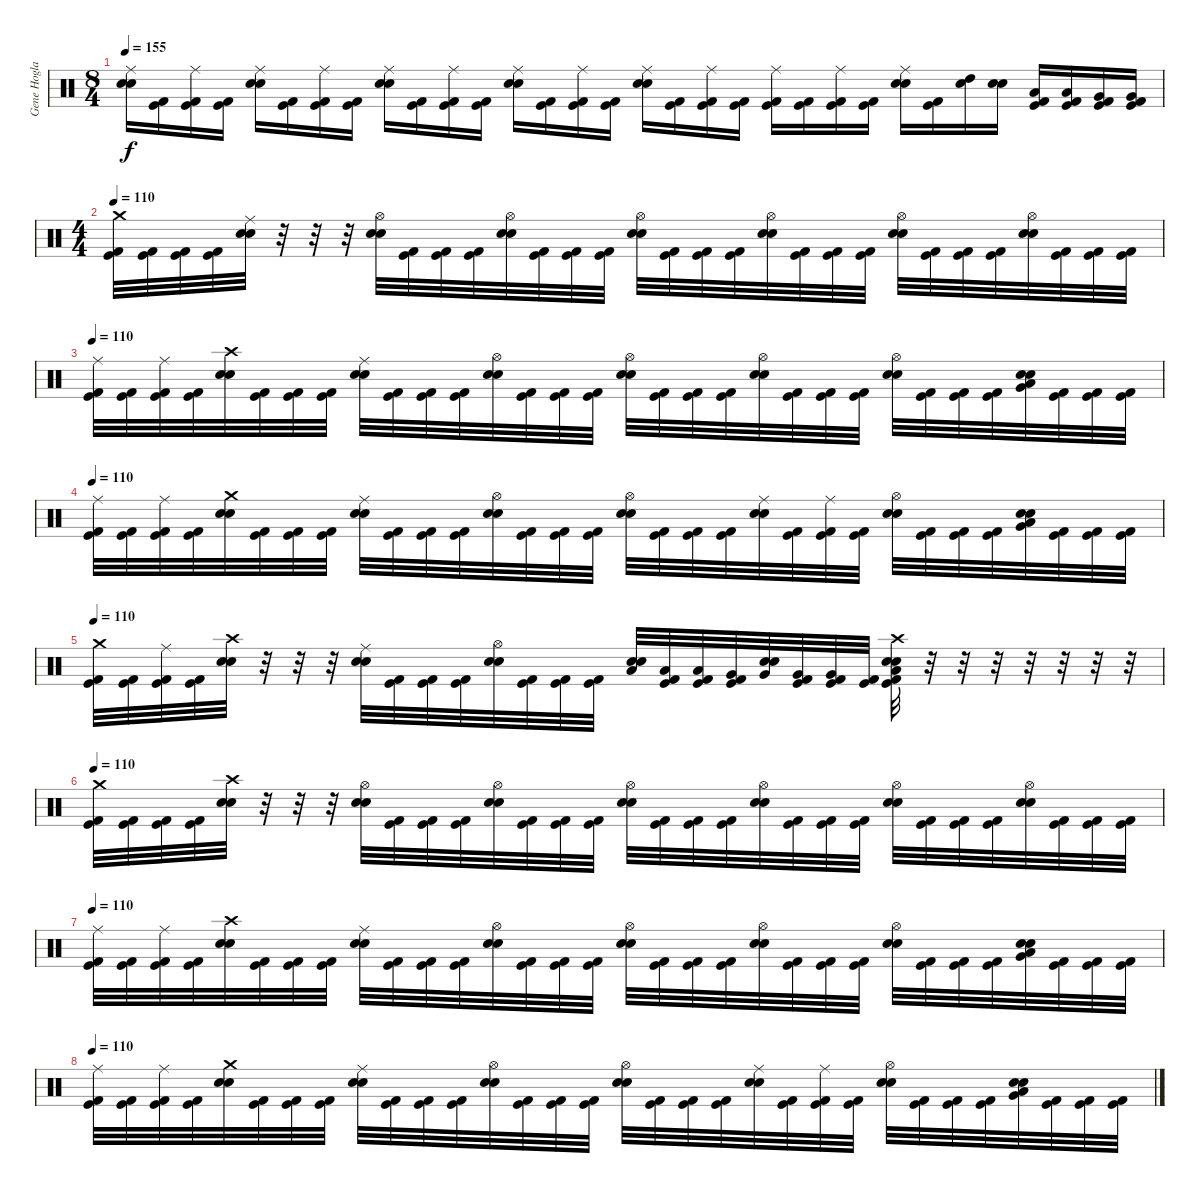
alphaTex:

\track ("Gene Hoglan" "Gene Hogla") {instrument percussion}
\staff {score}
\articulation defaults
\ts (8 4)
\tempo 155
\clef neutral
\ks c
("Ride (middle)" "Snare (hit) 2" "Electric Snare (hit)").16{dy f} ("Kick (hit) 2" "Kick (hit)").16 ("Ride (middle)" "Kick (hit) 2" "Kick (hit)").16 ("Kick (hit) 2" "Kick (hit)").16 ("Ride (middle)" "Snare (hit) 2" "Electric Snare (hit)").16 ("Kick (hit) 2" "Kick (hit)").16 ("Ride (middle)" "Kick (hit) 2" "Kick (hit)").16 ("Kick (hit) 2" "Kick (hit)").16 ("Ride (middle)" "Snare (hit) 2" "Electric Snare (hit)").16 ("Kick (hit) 2" "Kick (hit)").16 ("Ride (middle)" "Kick (hit) 2" "Kick (hit)").16 ("Kick (hit) 2" "Kick (hit)").16 ("Ride (middle)" "Snare (hit) 2" "Electric Snare (hit)").16 ("Kick (hit) 2" "Kick (hit)").16 ("Ride (middle)" "Kick (hit) 2" "Kick (hit)").16 ("Kick (hit) 2" "Kick (hit)").16 ("Ride (middle)" "Snare (hit) 2" "Electric Snare (hit)").16 ("Kick (hit)" "Kick (hit) 2").16 ("Ride (middle)" "Kick (hit) 2" "Kick (hit)").16 ("Kick (hit)" "Kick (hit) 2").16 ("Ride (middle)" "Kick (hit)" "Kick (hit) 2").16 ("Kick (hit) 2" "Kick (hit)").16 ("Ride (middle)" "Kick (hit)" "Kick (hit) 2").16 ("Kick (hit)" "Kick (hit) 2").16 ("Ride (middle)" "Snare (hit) 2" "Electric Snare (hit)").16 ("Kick (hit) 2" "Kick (hit)").16 ("High Tom (hit)" "Electric Snare (hit)").16 ("Snare (hit) 2" "Electric Snare (hit)").16 ("Low Tom (hit)" "Kick (hit)" "Kick (hit) 2").16 ("Low Tom (hit)" "Kick (hit) 2" "Kick (hit)").16 ("Very Low Tom (hit)" "Kick (hit) 2" "Kick (hit)").16 ("Very Low Tom (hit)" "Kick (hit) 2" "Kick (hit)").16 |
\ts (4 4)
\tempo 110
("Crash medium (hit)" "Kick (hit) 2" "Kick (hit)").32 ("Kick (hit) 2" "Kick (hit)").32 ("Kick (hit) 2" "Kick (hit)").32 ("Kick (hit) 2" "Kick (hit)").32 ("Ride (middle)" "Snare (hit) 2" "Electric Snare (hit)").32 r.32 r.32 r.32 ("Hi-Hat (open)" "Snare (hit) 2" "Electric Snare (hit)").32 ("Kick (hit) 2" "Kick (hit)").32 ("Kick (hit) 2" "Kick (hit)").32 ("Kick (hit) 2" "Kick (hit)").32 ("Hi-Hat (open)" "Snare (hit) 2" "Electric Snare (hit)").32 ("Kick (hit) 2" "Kick (hit)").32 ("Kick (hit) 2" "Kick (hit)").32 ("Kick (hit) 2" "Kick (hit)").32 ("Hi-Hat (open)" "Snare (hit) 2" "Electric Snare (hit)").32 ("Kick (hit) 2" "Kick (hit)").32 ("Kick (hit) 2" "Kick (hit)").32 ("Kick (hit) 2" "Kick (hit)").32 ("Hi-Hat (open)" "Snare (hit) 2" "Electric Snare (hit)").32 ("Kick (hit) 2" "Kick (hit)").32 ("Kick (hit) 2" "Kick (hit)").32 ("Kick (hit) 2" "Kick (hit)").32 ("Hi-Hat (open)" "Snare (hit) 2" "Electric Snare (hit)").32 ("Kick (hit) 2" "Kick (hit)").32 ("Kick (hit) 2" "Kick (hit)").32 ("Kick (hit) 2" "Kick (hit)").32 ("Hi-Hat (open)" "Snare (hit) 2" "Electric Snare (hit)").32 ("Kick (hit) 2" "Kick (hit)").32 ("Kick (hit) 2" "Kick (hit)").32 ("Kick (hit) 2" "Kick (hit)").32 |
\tempo 110
("Ride (middle)" "Kick (hit) 2" "Kick (hit)").32 ("Kick (hit) 2" "Kick (hit)").32 ("Ride (middle)" "Kick (hit) 2" "Kick (hit)").32 ("Kick (hit) 2" "Kick (hit)").32 ("Crash high (hit)" "Snare (hit) 2" "Electric Snare (hit)").32 ("Kick (hit)" "Kick (hit) 2").32 ("Kick (hit)" "Kick (hit) 2").32 ("Kick (hit)" "Kick (hit) 2").32 ("Ride (middle)" "Snare (hit) 2" "Electric Snare (hit)").32 ("Kick (hit) 2" "Kick (hit)").32 ("Kick (hit) 2" "Kick (hit)").32 ("Kick (hit) 2" "Kick (hit)").32 ("Hi-Hat (open)" "Snare (hit) 2" "Electric Snare (hit)").32 ("Kick (hit) 2" "Kick (hit)").32 ("Kick (hit) 2" "Kick (hit)").32 ("Kick (hit) 2" "Kick (hit)").32 ("Hi-Hat (open)" "Snare (hit) 2" "Electric Snare (hit)").32 ("Kick (hit) 2" "Kick (hit)").32 ("Kick (hit) 2" "Kick (hit)").32 ("Kick (hit) 2" "Kick (hit)").32 ("Hi-Hat (open)" "Snare (hit) 2" "Electric Snare (hit)").32 ("Kick (hit) 2" "Kick (hit)").32 ("Kick (hit) 2" "Kick (hit)").32 ("Kick (hit) 2" "Kick (hit)").32 ("Hi-Hat (open)" "Snare (hit) 2" "Electric Snare (hit)").32 ("Kick (hit) 2" "Kick (hit)").32 ("Kick (hit) 2" "Kick (hit)").32 ("Kick (hit) 2" "Kick (hit)").32 ("Low Floor Tom (hit)" "Very Low Tom (hit)" "Snare (hit) 2" "Electric Snare (hit)").32 ("Kick (hit) 2" "Kick (hit)").32 ("Kick (hit) 2" "Kick (hit)").32 ("Kick (hit) 2" "Kick (hit)").32 |
\tempo 110
("Ride (middle)" "Kick (hit) 2" "Kick (hit)").32 ("Kick (hit) 2" "Kick (hit)").32 ("Ride (middle)" "Kick (hit) 2" "Kick (hit)").32 ("Kick (hit) 2" "Kick (hit)").32 ("Crash medium (hit)" "Snare (hit) 2" "Electric Snare (hit)").32 ("Kick (hit)" "Kick (hit) 2").32 ("Kick (hit)" "Kick (hit) 2").32 ("Kick (hit)" "Kick (hit) 2").32 ("Ride (middle)" "Snare (hit) 2" "Electric Snare (hit)").32 ("Kick (hit) 2" "Kick (hit)").32 ("Kick (hit) 2" "Kick (hit)").32 ("Kick (hit) 2" "Kick (hit)").32 ("Hi-Hat (open)" "Snare (hit) 2" "Electric Snare (hit)").32 ("Kick (hit) 2" "Kick (hit)").32 ("Kick (hit) 2" "Kick (hit)").32 ("Kick (hit) 2" "Kick (hit)").32 ("Hi-Hat (open)" "Snare (hit) 2" "Electric Snare (hit)").32 ("Kick (hit) 2" "Kick (hit)").32 ("Kick (hit) 2" "Kick (hit)").32 ("Kick (hit) 2" "Kick (hit)").32 ("Ride (middle)" "Snare (hit) 2" "Electric Snare (hit)").32 ("Kick (hit) 2" "Kick (hit)").32 ("Ride (middle)" "Kick (hit) 2" "Kick (hit)").32 ("Kick (hit) 2" "Kick (hit)").32 ("Hi-Hat (open)" "Snare (hit) 2" "Electric Snare (hit)").32 ("Kick (hit) 2" "Kick (hit)").32 ("Kick (hit) 2" "Kick (hit)").32 ("Kick (hit) 2" "Kick (hit)").32 ("Low Floor Tom (hit)" "Very Low Tom (hit)" "Snare (hit) 2" "Electric Snare (hit)").32 ("Kick (hit) 2" "Kick (hit)").32 ("Kick (hit) 2" "Kick (hit)").32 ("Kick (hit) 2" "Kick (hit)").32 |
\tempo 110
("Crash medium (hit)" "Kick (hit) 2" "Kick (hit)").32 ("Kick (hit) 2" "Kick (hit)").32 ("Ride (middle)" "Kick (hit) 2" "Kick (hit)").32 ("Kick (hit) 2" "Kick (hit)").32 ("Crash high (hit)" "Snare (hit) 2" "Electric Snare (hit)").32 r.32 r.32 r.32 ("Ride (middle)" "Snare (hit) 2" "Electric Snare (hit)").32 ("Kick (hit) 2" "Kick (hit)").32 ("Kick (hit) 2" "Kick (hit)").32 ("Kick (hit) 2" "Kick (hit)").32 ("Hi-Hat (open)" "Snare (hit) 2" "Electric Snare (hit)").32 ("Kick (hit) 2" "Kick (hit)").32 ("Kick (hit) 2" "Kick (hit)").32 ("Kick (hit) 2" "Kick (hit)").32 ("Low Tom (hit)" "Snare (hit) 2" "Electric Snare (hit)").32 ("Low Tom (hit)" "Kick (hit) 2" "Kick (hit)").32 ("Low Tom (hit)" "Kick (hit) 2" "Kick (hit)").32 ("Very Low Tom (hit)" "Kick (hit) 2" "Kick (hit)").32 ("Very Low Tom (hit)" "Snare (hit) 2" "Electric Snare (hit)").32 ("Very Low Tom (hit)" "Kick (hit) 2" "Kick (hit)").32 ("Very Low Tom (hit)" "Kick (hit) 2" "Kick (hit)").32 ("Kick (hit) 2" "Kick (hit)").32 ("Kick (hit)" "Crash high (hit)" "Low Floor Tom (hit)" "Snare (hit) 2" "Electric Snare (hit)" "Kick (hit) 2").32 r.32 r.32 r.32 r.32 r.32 r.32 r.32 |
\tempo 110
("Crash medium (hit)" "Kick (hit) 2" "Kick (hit)").32 ("Kick (hit) 2" "Kick (hit)").32 ("Kick (hit) 2" "Kick (hit)").32 ("Kick (hit) 2" "Kick (hit)").32 ("Crash high (hit)" "Snare (hit) 2" "Electric Snare (hit)").32 r.32 r.32 r.32 ("Hi-Hat (open)" "Snare (hit) 2" "Electric Snare (hit)").32 ("Kick (hit) 2" "Kick (hit)").32 ("Kick (hit) 2" "Kick (hit)").32 ("Kick (hit) 2" "Kick (hit)").32 ("Hi-Hat (open)" "Snare (hit) 2" "Electric Snare (hit)").32 ("Kick (hit) 2" "Kick (hit)").32 ("Kick (hit) 2" "Kick (hit)").32 ("Kick (hit) 2" "Kick (hit)").32 ("Hi-Hat (open)" "Snare (hit) 2" "Electric Snare (hit)").32 ("Kick (hit) 2" "Kick (hit)").32 ("Kick (hit) 2" "Kick (hit)").32 ("Kick (hit) 2" "Kick (hit)").32 ("Hi-Hat (open)" "Snare (hit) 2" "Electric Snare (hit)").32 ("Kick (hit) 2" "Kick (hit)").32 ("Kick (hit) 2" "Kick (hit)").32 ("Kick (hit) 2" "Kick (hit)").32 ("Hi-Hat (open)" "Snare (hit) 2" "Electric Snare (hit)").32 ("Kick (hit) 2" "Kick (hit)").32 ("Kick (hit) 2" "Kick (hit)").32 ("Kick (hit) 2" "Kick (hit)").32 ("Hi-Hat (open)" "Snare (hit) 2" "Electric Snare (hit)").32 ("Kick (hit) 2" "Kick (hit)").32 ("Kick (hit) 2" "Kick (hit)").32 ("Kick (hit) 2" "Kick (hit)").32 |
\tempo 110
("Ride (middle)" "Kick (hit) 2" "Kick (hit)").32 ("Kick (hit) 2" "Kick (hit)").32 ("Ride (middle)" "Kick (hit) 2" "Kick (hit)").32 ("Kick (hit) 2" "Kick (hit)").32 ("Crash high (hit)" "Snare (hit) 2" "Electric Snare (hit)").32 ("Kick (hit)" "Kick (hit) 2").32 ("Kick (hit)" "Kick (hit) 2").32 ("Kick (hit)" "Kick (hit) 2").32 ("Ride (middle)" "Snare (hit) 2" "Electric Snare (hit)").32 ("Kick (hit) 2" "Kick (hit)").32 ("Kick (hit) 2" "Kick (hit)").32 ("Kick (hit) 2" "Kick (hit)").32 ("Hi-Hat (open)" "Snare (hit) 2" "Electric Snare (hit)").32 ("Kick (hit) 2" "Kick (hit)").32 ("Kick (hit) 2" "Kick (hit)").32 ("Kick (hit) 2" "Kick (hit)").32 ("Hi-Hat (open)" "Snare (hit) 2" "Electric Snare (hit)").32 ("Kick (hit) 2" "Kick (hit)").32 ("Kick (hit) 2" "Kick (hit)").32 ("Kick (hit) 2" "Kick (hit)").32 ("Hi-Hat (open)" "Snare (hit) 2" "Electric Snare (hit)").32 ("Kick (hit) 2" "Kick (hit)").32 ("Kick (hit) 2" "Kick (hit)").32 ("Kick (hit) 2" "Kick (hit)").32 ("Hi-Hat (open)" "Snare (hit) 2" "Electric Snare (hit)").32 ("Kick (hit) 2" "Kick (hit)").32 ("Kick (hit) 2" "Kick (hit)").32 ("Kick (hit) 2" "Kick (hit)").32 ("Low Floor Tom (hit)" "Very Low Tom (hit)" "Snare (hit) 2" "Electric Snare (hit)").32 ("Kick (hit) 2" "Kick (hit)").32 ("Kick (hit) 2" "Kick (hit)").32 ("Kick (hit) 2" "Kick (hit)").32 |
\tempo 110
("Ride (middle)" "Kick (hit) 2" "Kick (hit)").32 ("Kick (hit) 2" "Kick (hit)").32 ("Ride (middle)" "Kick (hit) 2" "Kick (hit)").32 ("Kick (hit) 2" "Kick (hit)").32 ("Crash medium (hit)" "Snare (hit) 2" "Electric Snare (hit)").32 ("Kick (hit)" "Kick (hit) 2").32 ("Kick (hit)" "Kick (hit) 2").32 ("Kick (hit)" "Kick (hit) 2").32 ("Ride (middle)" "Snare (hit) 2" "Electric Snare (hit)").32 ("Kick (hit) 2" "Kick (hit)").32 ("Kick (hit) 2" "Kick (hit)").32 ("Kick (hit) 2" "Kick (hit)").32 ("Hi-Hat (open)" "Snare (hit) 2" "Electric Snare (hit)").32 ("Kick (hit) 2" "Kick (hit)").32 ("Kick (hit) 2" "Kick (hit)").32 ("Kick (hit) 2" "Kick (hit)").32 ("Hi-Hat (open)" "Snare (hit) 2" "Electric Snare (hit)").32 ("Kick (hit) 2" "Kick (hit)").32 ("Kick (hit) 2" "Kick (hit)").32 ("Kick (hit) 2" "Kick (hit)").32 ("Ride (middle)" "Snare (hit) 2" "Electric Snare (hit)").32 ("Kick (hit) 2" "Kick (hit)").32 ("Ride (middle)" "Kick (hit) 2" "Kick (hit)").32 ("Kick (hit) 2" "Kick (hit)").32 ("Hi-Hat (open)" "Snare (hit) 2" "Electric Snare (hit)").32 ("Kick (hit) 2" "Kick (hit)").32 ("Kick (hit) 2" "Kick (hit)").32 ("Kick (hit) 2" "Kick (hit)").32 ("Low Floor Tom (hit)" "Very Low Tom (hit)" "Snare (hit) 2" "Electric Snare (hit)").32 ("Kick (hit) 2" "Kick (hit)").32 ("Kick (hit) 2" "Kick (hit)").32 ("Kick (hit) 2" "Kick (hit)").32
